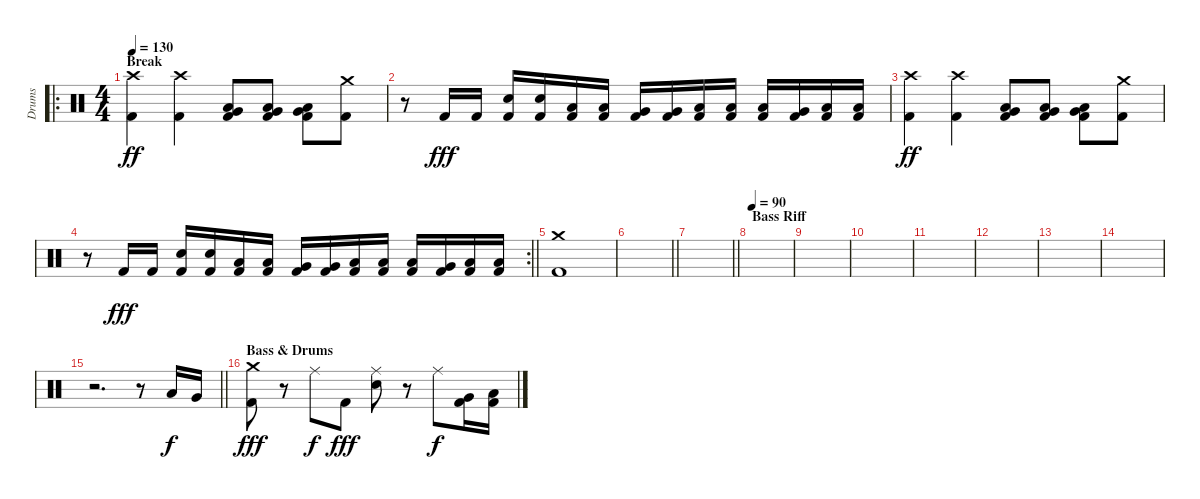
\track ("Drums" "Drums") {instrument percussion}
\staff {score}
\articulation defaults
\ro
\ts (4 4)
\section ("" "Break")
\tempo 130
\clef neutral
\ks c
("Crash high (hit)" "Kick (hit) 2").4{dy ff} ("Crash high (hit)" "Kick (hit) 2").4 ("Very Low Tom (hit)" "Low Tom (hit)" "Kick (hit) 2").8 ("Low Tom (hit)" "Very Low Tom (hit)" "Kick (hit) 2").8 ("Very Low Tom (hit)" "Low Floor Tom (hit)" "Kick (hit) 2").8 ("Crash medium (hit)" "Kick (hit) 2").8 |
r.8 "Kick (hit) 2".16{dy fff} "Kick (hit) 2".16 ("Electric Snare (hit)" "Kick (hit) 2").16 ("Electric Snare (hit)" "Kick (hit) 2").16 ("Low Tom (hit)" "Kick (hit) 2").16 ("Low Tom (hit)" "Kick (hit) 2").16 ("Very Low Tom (hit)" "Kick (hit) 2").16 ("Very Low Tom (hit)" "Kick (hit) 2").16 ("Low Floor Tom (hit)" "Kick (hit) 2").16 ("Low Floor Tom (hit)" "Kick (hit) 2").16 ("Low Tom (hit)" "Kick (hit) 2").16 ("Very Low Tom (hit)" "Kick (hit) 2").16 ("Low Tom (hit)" "Kick (hit) 2").16 ("Low Floor Tom (hit)" "Kick (hit) 2").16 |
("Crash high (hit)" "Kick (hit) 2").4{dy ff} ("Crash high (hit)" "Kick (hit) 2").4 ("Very Low Tom (hit)" "Low Tom (hit)" "Kick (hit) 2").8 ("Low Tom (hit)" "Very Low Tom (hit)" "Kick (hit) 2").8 ("Very Low Tom (hit)" "Low Floor Tom (hit)" "Kick (hit) 2").8 ("Crash medium (hit)" "Kick (hit) 2").8 |
\rc 2
\barLineRight lightlight
r.8 "Kick (hit) 2".16{dy fff} "Kick (hit) 2".16 ("Electric Snare (hit)" "Kick (hit) 2").16 ("Electric Snare (hit)" "Kick (hit) 2").16 ("Low Tom (hit)" "Kick (hit) 2").16 ("Low Tom (hit)" "Kick (hit) 2").16 ("Very Low Tom (hit)" "Kick (hit) 2").16 ("Very Low Tom (hit)" "Kick (hit) 2").16 ("Low Floor Tom (hit)" "Kick (hit) 2").16 ("Low Floor Tom (hit)" "Kick (hit) 2").16 ("Low Tom (hit)" "Kick (hit) 2").16 ("Very Low Tom (hit)" "Kick (hit) 2").16 ("Low Tom (hit)" "Kick (hit) 2").16 ("Low Floor Tom (hit)" "Kick (hit) 2").16 |
("Crash medium (hit)" "Kick (hit) 2").1 |
\barLineRight lightlight
|
\barLineRight lightlight
|
\section ("" "Bass Riff")
\tempo (90 0.03125)
|
|
|
|
|
|
|
\barLineRight lightlight
r.2{d} r.8 "Low Tom (hit)".16{dy f} "Very Low Tom (hit)".16 |
\section ("" "Bass & Drums")
("Crash medium (hit)" "Kick (hit) 2").8{dy fff} r.8 "Ride (middle)".8{dy f} "Kick (hit) 2".8{dy fff} ("Ride (middle)" "Electric Snare (hit)").8 r.8 "Ride (middle)".8{dy f} ("Very Low Tom (hit)" "Kick (hit) 2").16 ("Low Tom (hit)" "Kick (hit) 2").16
